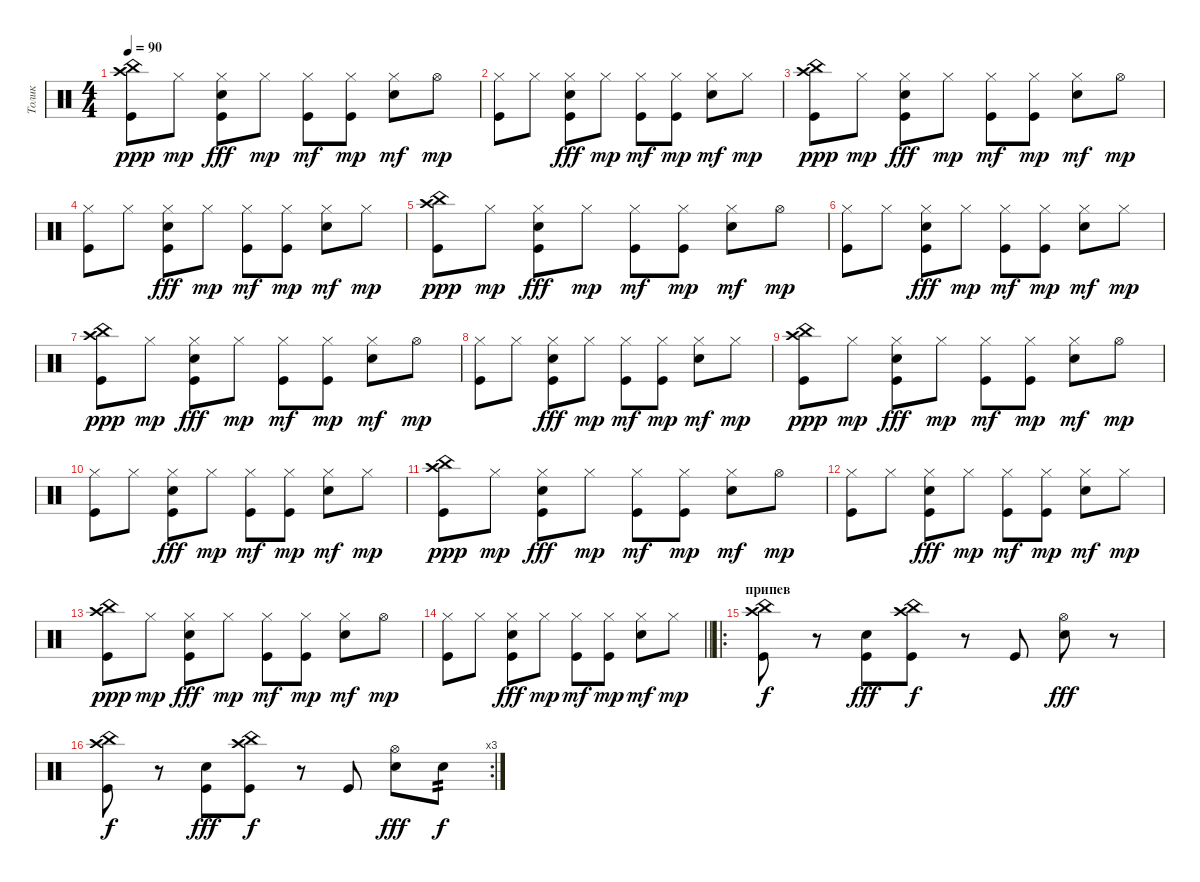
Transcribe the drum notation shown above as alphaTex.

\track ("Толик" "Толик") {instrument percussion}
\staff {score}
\articulation defaults
\ts (4 4)
\tempo 90
\clef neutral
\ks c
("China (hit)" "Kick (hit)" "Crash high (hit)").8{dy ppp} "Hi-Hat (closed)".8{dy mp} ("Kick (hit)" "Hi-Hat (closed)" "Snare (hit) 2").8{dy fff} "Hi-Hat (closed)".8{dy mp} ("Kick (hit)" "Hi-Hat (closed)").8{dy mf} ("Kick (hit)" "Hi-Hat (closed)").8{dy mp} ("Snare (hit) 2" "Hi-Hat (closed)").8{dy mf} "Hi-Hat (open)".8{dy mp} |
("Hi-Hat (closed)" "Kick (hit)").8 "Hi-Hat (closed)".8 ("Kick (hit)" "Hi-Hat (closed)" "Snare (hit) 2").8{dy fff} "Hi-Hat (closed)".8{dy mp} ("Kick (hit)" "Hi-Hat (closed)").8{dy mf} ("Kick (hit)" "Hi-Hat (closed)").8{dy mp} ("Snare (hit) 2" "Hi-Hat (closed)").8{dy mf} "Hi-Hat (closed)".8{dy mp} |
("China (hit)" "Kick (hit)" "Crash high (hit)").8{dy ppp} "Hi-Hat (closed)".8{dy mp} ("Kick (hit)" "Hi-Hat (closed)" "Snare (hit) 2").8{dy fff} "Hi-Hat (closed)".8{dy mp} ("Kick (hit)" "Hi-Hat (closed)").8{dy mf} ("Kick (hit)" "Hi-Hat (closed)").8{dy mp} ("Snare (hit) 2" "Hi-Hat (closed)").8{dy mf} "Hi-Hat (open)".8{dy mp} |
("Hi-Hat (closed)" "Kick (hit)").8 "Hi-Hat (closed)".8 ("Kick (hit)" "Hi-Hat (closed)" "Snare (hit) 2").8{dy fff} "Hi-Hat (closed)".8{dy mp} ("Kick (hit)" "Hi-Hat (closed)").8{dy mf} ("Kick (hit)" "Hi-Hat (closed)").8{dy mp} ("Snare (hit) 2" "Hi-Hat (closed)").8{dy mf} "Hi-Hat (closed)".8{dy mp} |
("China (hit)" "Kick (hit)" "Crash high (hit)").8{dy ppp} "Hi-Hat (closed)".8{dy mp} ("Kick (hit)" "Hi-Hat (closed)" "Snare (hit) 2").8{dy fff} "Hi-Hat (closed)".8{dy mp} ("Kick (hit)" "Hi-Hat (closed)").8{dy mf} ("Kick (hit)" "Hi-Hat (closed)").8{dy mp} ("Snare (hit) 2" "Hi-Hat (closed)").8{dy mf} "Hi-Hat (open)".8{dy mp} |
("Hi-Hat (closed)" "Kick (hit)").8 "Hi-Hat (closed)".8 ("Kick (hit)" "Hi-Hat (closed)" "Snare (hit) 2").8{dy fff} "Hi-Hat (closed)".8{dy mp} ("Kick (hit)" "Hi-Hat (closed)").8{dy mf} ("Kick (hit)" "Hi-Hat (closed)").8{dy mp} ("Snare (hit) 2" "Hi-Hat (closed)").8{dy mf} "Hi-Hat (closed)".8{dy mp} |
("China (hit)" "Kick (hit)" "Crash high (hit)").8{dy ppp} "Hi-Hat (closed)".8{dy mp} ("Kick (hit)" "Hi-Hat (closed)" "Snare (hit) 2").8{dy fff} "Hi-Hat (closed)".8{dy mp} ("Kick (hit)" "Hi-Hat (closed)").8{dy mf} ("Kick (hit)" "Hi-Hat (closed)").8{dy mp} ("Snare (hit) 2" "Hi-Hat (closed)").8{dy mf} "Hi-Hat (open)".8{dy mp} |
("Hi-Hat (closed)" "Kick (hit)").8 "Hi-Hat (closed)".8 ("Kick (hit)" "Hi-Hat (closed)" "Snare (hit) 2").8{dy fff} "Hi-Hat (closed)".8{dy mp} ("Kick (hit)" "Hi-Hat (closed)").8{dy mf} ("Kick (hit)" "Hi-Hat (closed)").8{dy mp} ("Snare (hit) 2" "Hi-Hat (closed)").8{dy mf} "Hi-Hat (closed)".8{dy mp} |
("China (hit)" "Kick (hit)" "Crash high (hit)").8{dy ppp} "Hi-Hat (closed)".8{dy mp} ("Kick (hit)" "Hi-Hat (closed)" "Snare (hit) 2").8{dy fff} "Hi-Hat (closed)".8{dy mp} ("Kick (hit)" "Hi-Hat (closed)").8{dy mf} ("Kick (hit)" "Hi-Hat (closed)").8{dy mp} ("Snare (hit) 2" "Hi-Hat (closed)").8{dy mf} "Hi-Hat (open)".8{dy mp} |
("Hi-Hat (closed)" "Kick (hit)").8 "Hi-Hat (closed)".8 ("Kick (hit)" "Hi-Hat (closed)" "Snare (hit) 2").8{dy fff} "Hi-Hat (closed)".8{dy mp} ("Kick (hit)" "Hi-Hat (closed)").8{dy mf} ("Kick (hit)" "Hi-Hat (closed)").8{dy mp} ("Snare (hit) 2" "Hi-Hat (closed)").8{dy mf} "Hi-Hat (closed)".8{dy mp} |
("China (hit)" "Kick (hit)" "Crash high (hit)").8{dy ppp} "Hi-Hat (closed)".8{dy mp} ("Kick (hit)" "Hi-Hat (closed)" "Snare (hit) 2").8{dy fff} "Hi-Hat (closed)".8{dy mp} ("Kick (hit)" "Hi-Hat (closed)").8{dy mf} ("Kick (hit)" "Hi-Hat (closed)").8{dy mp} ("Snare (hit) 2" "Hi-Hat (closed)").8{dy mf} "Hi-Hat (open)".8{dy mp} |
("Hi-Hat (closed)" "Kick (hit)").8 "Hi-Hat (closed)".8 ("Kick (hit)" "Hi-Hat (closed)" "Snare (hit) 2").8{dy fff} "Hi-Hat (closed)".8{dy mp} ("Kick (hit)" "Hi-Hat (closed)").8{dy mf} ("Kick (hit)" "Hi-Hat (closed)").8{dy mp} ("Snare (hit) 2" "Hi-Hat (closed)").8{dy mf} "Hi-Hat (closed)".8{dy mp} |
("China (hit)" "Kick (hit)" "Crash high (hit)").8{dy ppp} "Hi-Hat (closed)".8{dy mp} ("Kick (hit)" "Hi-Hat (closed)" "Snare (hit) 2").8{dy fff} "Hi-Hat (closed)".8{dy mp} ("Kick (hit)" "Hi-Hat (closed)").8{dy mf} ("Kick (hit)" "Hi-Hat (closed)").8{dy mp} ("Snare (hit) 2" "Hi-Hat (closed)").8{dy mf} "Hi-Hat (open)".8{dy mp} |
\barLineRight lightlight
("Hi-Hat (closed)" "Kick (hit)").8 "Hi-Hat (closed)".8 ("Kick (hit)" "Hi-Hat (closed)" "Snare (hit) 2").8{dy fff} "Hi-Hat (closed)".8{dy mp} ("Kick (hit)" "Hi-Hat (closed)").8{dy mf} ("Kick (hit)" "Hi-Hat (closed)").8{dy mp} ("Snare (hit) 2" "Hi-Hat (closed)").8{dy mf} "Hi-Hat (closed)".8{dy mp} |
\ro
\section ("" "припев")
("Crash high (hit)" "Kick (hit)" "China (hit)").8{dy f} r.8 ("Kick (hit)" "Snare (hit) 2").8{dy fff} ("China (hit)" "Crash high (hit)" "Kick (hit)").8{dy f} r.8 "Kick (hit)".8 ("Hi-Hat (open)" "Snare (hit) 2").8{dy fff} r.8 |
\rc 3
("Crash high (hit)" "Kick (hit)" "China (hit)").8{dy f} r.8 ("Kick (hit)" "Snare (hit) 2").8{dy fff} ("China (hit)" "Crash high (hit)" "Kick (hit)").8{dy f} r.8 "Kick (hit)".8 ("Hi-Hat (open)" "Snare (hit) 2").8{dy fff} "Snare (hit) 2".8{tp 2 dy f}
